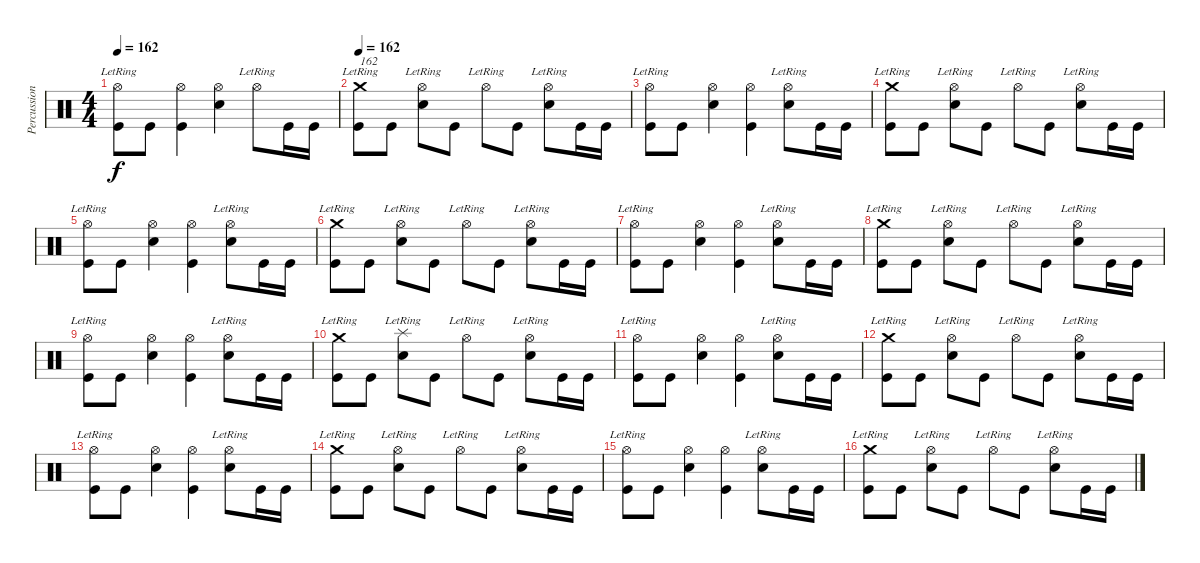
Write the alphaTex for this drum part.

\track ("Percussions" "Percussion") {instrument percussion}
\staff {score}
\articulation defaults
\ts (4 4)
\tempo 162
\clef neutral
\ks c
("Hi-Hat (open)"{lr} "Kick (hit)").8{dy f} "Kick (hit)".8 ("Hi-Hat (open)" "Kick (hit)").4 ("Hi-Hat (open)" "Snare (hit) 2").4 "Hi-Hat (open)"{lr}.8 "Kick (hit)".16 "Kick (hit)".16 |
\tempo 162
("Crash medium (hit)"{lr} "Kick (hit)").8{txt "162"} "Kick (hit)".8 ("Hi-Hat (open)"{lr} "Snare (hit) 2").8 "Kick (hit)".8 "Hi-Hat (open)"{lr}.8 "Kick (hit)".8 ("Hi-Hat (open)"{lr} "Snare (hit) 2").8 "Kick (hit)".16 "Kick (hit)".16 |
("Hi-Hat (open)"{lr} "Kick (hit)").8 "Kick (hit)".8 ("Hi-Hat (open)" "Snare (hit) 2").4 ("Hi-Hat (open)" "Kick (hit)").4 ("Hi-Hat (open)"{lr} "Snare (hit) 2").8 "Kick (hit)".16 "Kick (hit)".16 |
("Crash medium (hit)"{lr} "Kick (hit)").8 "Kick (hit)".8 ("Hi-Hat (open)"{lr} "Snare (hit) 2").8 "Kick (hit)".8 "Hi-Hat (open)"{lr}.8 "Kick (hit)".8 ("Hi-Hat (open)"{lr} "Snare (hit) 2").8 "Kick (hit)".16 "Kick (hit)".16 |
("Hi-Hat (open)"{lr} "Kick (hit)").8 "Kick (hit)".8 ("Hi-Hat (open)" "Snare (hit) 2").4 ("Hi-Hat (open)" "Kick (hit)").4 ("Hi-Hat (open)"{lr} "Snare (hit) 2").8 "Kick (hit)".16 "Kick (hit)".16 |
("Crash medium (hit)"{lr} "Kick (hit)").8 "Kick (hit)".8 ("Hi-Hat (open)"{lr} "Snare (hit) 2").8 "Kick (hit)".8 "Hi-Hat (open)"{lr}.8 "Kick (hit)".8 ("Hi-Hat (open)"{lr} "Snare (hit) 2").8 "Kick (hit)".16 "Kick (hit)".16 |
("Hi-Hat (open)"{lr} "Kick (hit)").8 "Kick (hit)".8 ("Hi-Hat (open)" "Snare (hit) 2").4 ("Hi-Hat (open)" "Kick (hit)").4 ("Hi-Hat (open)"{lr} "Snare (hit) 2").8 "Kick (hit)".16 "Kick (hit)".16 |
("Crash medium (hit)"{lr} "Kick (hit)").8 "Kick (hit)".8 ("Hi-Hat (open)"{lr} "Snare (hit) 2").8 "Kick (hit)".8 "Hi-Hat (open)"{lr}.8 "Kick (hit)".8 ("Hi-Hat (open)"{lr} "Snare (hit) 2").8 "Kick (hit)".16 "Kick (hit)".16 |
("Hi-Hat (open)"{lr} "Kick (hit)").8 "Kick (hit)".8 ("Hi-Hat (open)" "Snare (hit) 2").4 ("Hi-Hat (open)" "Kick (hit)").4 ("Hi-Hat (open)"{lr} "Snare (hit) 2").8 "Kick (hit)".16 "Kick (hit)".16 |
("Crash medium (hit)"{lr} "Kick (hit)").8 "Kick (hit)".8 ("Splash (hit)"{lr} "Snare (hit) 2").8 "Kick (hit)".8 "Hi-Hat (open)"{lr}.8 "Kick (hit)".8 ("Hi-Hat (open)"{lr} "Snare (hit) 2").8 "Kick (hit)".16 "Kick (hit)".16 |
("Hi-Hat (open)"{lr} "Kick (hit)").8 "Kick (hit)".8 ("Hi-Hat (open)" "Snare (hit) 2").4 ("Hi-Hat (open)" "Kick (hit)").4 ("Hi-Hat (open)"{lr} "Snare (hit) 2").8 "Kick (hit)".16 "Kick (hit)".16 |
("Crash medium (hit)"{lr} "Kick (hit)").8 "Kick (hit)".8 ("Hi-Hat (open)"{lr} "Snare (hit) 2").8 "Kick (hit)".8 "Hi-Hat (open)"{lr}.8 "Kick (hit)".8 ("Hi-Hat (open)"{lr} "Snare (hit) 2").8 "Kick (hit)".16 "Kick (hit)".16 |
("Hi-Hat (open)"{lr} "Kick (hit)").8 "Kick (hit)".8 ("Hi-Hat (open)" "Snare (hit) 2").4 ("Hi-Hat (open)" "Kick (hit)").4 ("Hi-Hat (open)"{lr} "Snare (hit) 2").8 "Kick (hit)".16 "Kick (hit)".16 |
("Crash medium (hit)"{lr} "Kick (hit)").8 "Kick (hit)".8 ("Hi-Hat (open)"{lr} "Snare (hit) 2").8 "Kick (hit)".8 "Hi-Hat (open)"{lr}.8 "Kick (hit)".8 ("Hi-Hat (open)"{lr} "Snare (hit) 2").8 "Kick (hit)".16 "Kick (hit)".16 |
("Hi-Hat (open)"{lr} "Kick (hit)").8 "Kick (hit)".8 ("Hi-Hat (open)" "Snare (hit) 2").4 ("Hi-Hat (open)" "Kick (hit)").4 ("Hi-Hat (open)"{lr} "Snare (hit) 2").8 "Kick (hit)".16 "Kick (hit)".16 |
("Crash medium (hit)"{lr} "Kick (hit)").8 "Kick (hit)".8 ("Hi-Hat (open)"{lr} "Snare (hit) 2").8 "Kick (hit)".8 "Hi-Hat (open)"{lr}.8 "Kick (hit)".8 ("Hi-Hat (open)"{lr} "Snare (hit) 2").8 "Kick (hit)".16 "Kick (hit)".16
